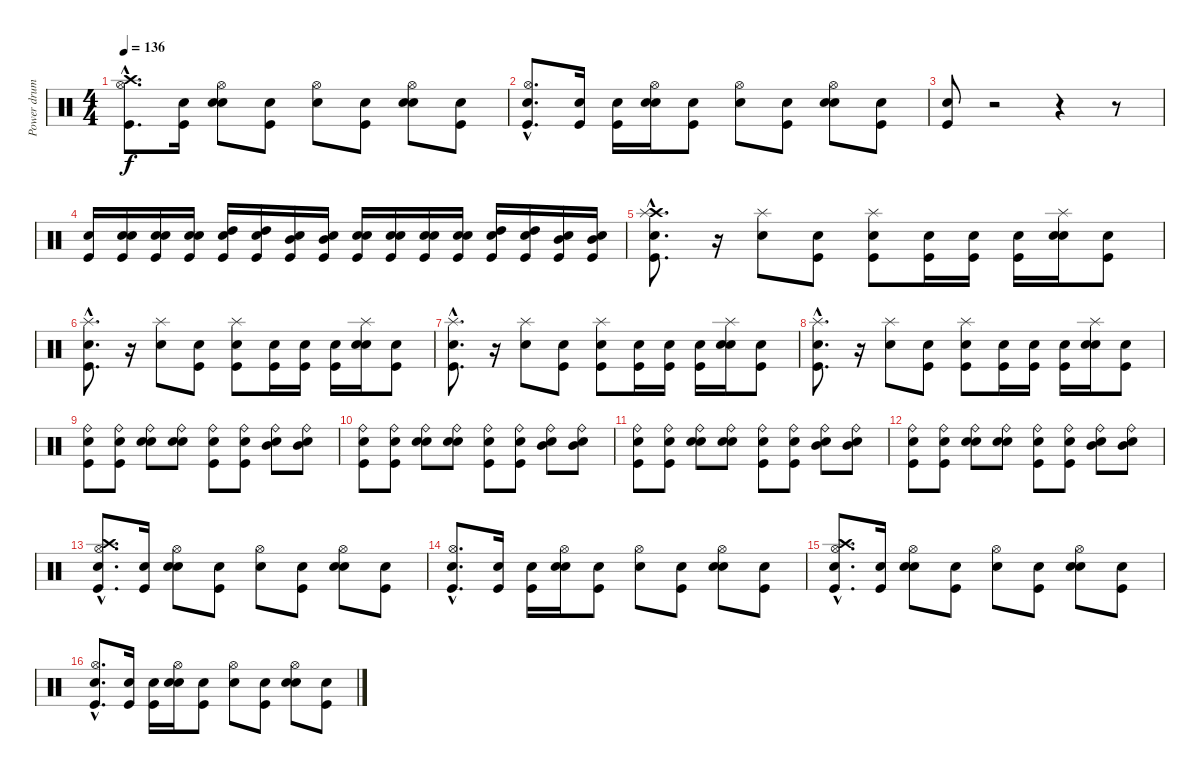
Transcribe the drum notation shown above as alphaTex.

\track ("Power drums" "Power drum") {instrument percussion}
\staff {score}
\articulation defaults
\ts (4 4)
\tempo 136
\clef neutral
\ks c
("Kick (hit)"{hac} "Hi-Hat (open)"{hac} "Crash high (hit)"{hac}).8{d dy f} ("Snare (hit)" "Kick (hit)").16 ("Snare (hit)" "Snare (hit) 2" "Hi-Hat (open)").8 ("Snare (hit)" "Kick (hit)").8 ("Snare (hit)" "Hi-Hat (open)").8 ("Snare (hit)" "Kick (hit)").8 ("Snare (hit)" "Snare (hit) 2" "Hi-Hat (open)").8 ("Snare (hit)" "Kick (hit)").8 |
("Snare (hit)"{hac} "Kick (hit)"{hac} "Hi-Hat (open)"{hac}).8{d} ("Snare (hit)" "Kick (hit)").16 ("Snare (hit)" "Kick (hit)").16 ("Snare (hit)" "Snare (hit) 2" "Hi-Hat (open)").16 ("Snare (hit)" "Kick (hit)").8 ("Snare (hit)" "Hi-Hat (open)").8 ("Snare (hit)" "Kick (hit)").8 ("Snare (hit)" "Snare (hit) 2" "Hi-Hat (open)").8 ("Snare (hit)" "Kick (hit)").8 |
("Snare (hit)" "Kick (hit)").8 r.2 r.4 r.8 |
("Kick (hit)" "Snare (hit) 2").16 ("Snare (hit)" "Kick (hit)" "Snare (hit) 2").16 ("Snare (hit)" "Kick (hit)" "Snare (hit) 2").16 ("Snare (hit)" "Kick (hit)" "Snare (hit) 2").16 ("Snare (hit)" "Kick (hit)" "High Tom (hit)").16 ("Snare (hit)" "Kick (hit)" "High Tom (hit)").16 ("Snare (hit)" "Kick (hit)" "Mid Tom (hit)").16 ("Snare (hit)" "Kick (hit)" "Mid Tom (hit)").16 ("Snare (hit)" "Kick (hit)" "Snare (hit) 2").16 ("Snare (hit)" "Kick (hit)" "Snare (hit) 2").16 ("Snare (hit)" "Kick (hit)" "Snare (hit) 2").16 ("Snare (hit)" "Kick (hit)" "Snare (hit) 2").16 ("Snare (hit)" "Kick (hit)" "High Tom (hit)").16 ("Snare (hit)" "Kick (hit)" "High Tom (hit)").16 ("Snare (hit)" "Kick (hit)" "Mid Tom (hit)").16 ("Snare (hit)" "Kick (hit)" "Mid Tom (hit)").16 |
("Snare (hit)"{hac} "Kick (hit)"{hac} "Crash high (hit)"{hac} "Splash (hit)"{hac}).8{d} r.16 ("Snare (hit) 2" "Splash (hit)").8 ("Snare (hit)" "Kick (hit)").8 ("Snare (hit)" "Kick (hit)" "Splash (hit)").8 ("Snare (hit)" "Kick (hit)").16 ("Snare (hit)" "Kick (hit)").16 ("Snare (hit)" "Kick (hit)").16 ("Snare (hit)" "Snare (hit) 2" "Splash (hit)").16 ("Snare (hit)" "Kick (hit)").8 |
("Snare (hit)"{hac} "Kick (hit)"{hac} "Splash (hit)"{hac}).8{d} r.16 ("Snare (hit) 2" "Splash (hit)").8 ("Snare (hit)" "Kick (hit)").8 ("Snare (hit)" "Kick (hit)" "Splash (hit)").8 ("Snare (hit)" "Kick (hit)").16 ("Snare (hit)" "Kick (hit)").16 ("Snare (hit)" "Kick (hit)").16 ("Snare (hit)" "Snare (hit) 2" "Splash (hit)").16 ("Snare (hit)" "Kick (hit)").8 |
("Snare (hit)"{hac} "Kick (hit)"{hac} "Splash (hit)"{hac}).8{d} r.16 ("Snare (hit) 2" "Splash (hit)").8 ("Snare (hit)" "Kick (hit)").8 ("Snare (hit)" "Kick (hit)" "Splash (hit)").8 ("Snare (hit)" "Kick (hit)").16 ("Snare (hit)" "Kick (hit)").16 ("Snare (hit)" "Kick (hit)").16 ("Snare (hit)" "Snare (hit) 2" "Splash (hit)").16 ("Snare (hit)" "Kick (hit)").8 |
("Snare (hit)"{hac} "Kick (hit)"{hac} "Splash (hit)"{hac}).8{d} r.16 ("Snare (hit) 2" "Splash (hit)").8 ("Snare (hit)" "Kick (hit)").8 ("Snare (hit)" "Kick (hit)" "Splash (hit)").8 ("Snare (hit)" "Kick (hit)").16 ("Snare (hit)" "Kick (hit)").16 ("Snare (hit)" "Kick (hit)").16 ("Snare (hit)" "Snare (hit) 2" "Splash (hit)").16 ("Snare (hit)" "Kick (hit)").8 |
("Snare (hit)" "Kick (hit)" "Ride (bell)").8 ("Snare (hit)" "Kick (hit)" "Ride (bell)").8 ("Snare (hit)" "Snare (hit) 2" "Ride (bell)").8 ("Snare (hit)" "Snare (hit) 2" "Ride (bell)").8 ("Snare (hit)" "Kick (hit)" "Ride (bell)").8 ("Snare (hit)" "Kick (hit)" "Ride (bell)").8 ("Snare (hit)" "Mid Tom (hit)" "Ride (bell)").8 ("Snare (hit)" "Mid Tom (hit)" "Ride (bell)").8 |
("Snare (hit)" "Kick (hit)" "Ride (bell)").8 ("Snare (hit)" "Kick (hit)" "Ride (bell)").8 ("Snare (hit)" "Snare (hit) 2" "Ride (bell)").8 ("Snare (hit)" "Snare (hit) 2" "Ride (bell)").8 ("Snare (hit)" "Kick (hit)" "Ride (bell)").8 ("Snare (hit)" "Kick (hit)" "Ride (bell)").8 ("Snare (hit)" "Mid Tom (hit)" "Ride (bell)").8 ("Snare (hit)" "Mid Tom (hit)" "Ride (bell)").8 |
("Snare (hit)" "Kick (hit)" "Ride (bell)").8 ("Snare (hit)" "Kick (hit)" "Ride (bell)").8 ("Snare (hit)" "Snare (hit) 2" "Ride (bell)").8 ("Snare (hit)" "Snare (hit) 2" "Ride (bell)").8 ("Snare (hit)" "Kick (hit)" "Ride (bell)").8 ("Snare (hit)" "Kick (hit)" "Ride (bell)").8 ("Snare (hit)" "Mid Tom (hit)" "Ride (bell)").8 ("Snare (hit)" "Mid Tom (hit)" "Ride (bell)").8 |
("Snare (hit)" "Kick (hit)" "Ride (bell)").8 ("Snare (hit)" "Kick (hit)" "Ride (bell)").8 ("Snare (hit)" "Snare (hit) 2" "Ride (bell)").8 ("Snare (hit)" "Snare (hit) 2" "Ride (bell)").8 ("Snare (hit)" "Kick (hit)" "Ride (bell)").8 ("Snare (hit)" "Kick (hit)" "Ride (bell)").8 ("Snare (hit)" "Mid Tom (hit)" "Ride (bell)").8 ("Snare (hit)" "Mid Tom (hit)" "Ride (bell)").8 |
("Snare (hit)"{hac} "Kick (hit)"{hac} "Hi-Hat (open)"{hac} "Crash high (hit)"{hac}).8{d} ("Snare (hit)" "Kick (hit)").16 ("Snare (hit)" "Snare (hit) 2" "Hi-Hat (open)").8 ("Snare (hit)" "Kick (hit)").8 ("Snare (hit)" "Hi-Hat (open)").8 ("Snare (hit)" "Kick (hit)").8 ("Snare (hit)" "Snare (hit) 2" "Hi-Hat (open)").8 ("Snare (hit)" "Kick (hit)").8 |
("Snare (hit)"{hac} "Kick (hit)"{hac} "Hi-Hat (open)"{hac}).8{d} ("Snare (hit)" "Kick (hit)").16 ("Snare (hit)" "Kick (hit)").16 ("Snare (hit)" "Snare (hit) 2" "Hi-Hat (open)").16 ("Snare (hit)" "Kick (hit)").8 ("Snare (hit)" "Hi-Hat (open)").8 ("Snare (hit)" "Kick (hit)").8 ("Snare (hit)" "Snare (hit) 2" "Hi-Hat (open)").8 ("Snare (hit)" "Kick (hit)").8 |
("Snare (hit)"{hac} "Kick (hit)"{hac} "Hi-Hat (open)"{hac} "Crash high (hit)"{hac}).8{d} ("Snare (hit)" "Kick (hit)").16 ("Snare (hit)" "Snare (hit) 2" "Hi-Hat (open)").8 ("Snare (hit)" "Kick (hit)").8 ("Snare (hit)" "Hi-Hat (open)").8 ("Snare (hit)" "Kick (hit)").8 ("Snare (hit)" "Snare (hit) 2" "Hi-Hat (open)").8 ("Snare (hit)" "Kick (hit)").8 |
("Snare (hit)"{hac} "Kick (hit)"{hac} "Hi-Hat (open)"{hac}).8{d} ("Snare (hit)" "Kick (hit)").16 ("Snare (hit)" "Kick (hit)").16 ("Snare (hit)" "Snare (hit) 2" "Hi-Hat (open)").16 ("Snare (hit)" "Kick (hit)").8 ("Snare (hit)" "Hi-Hat (open)").8 ("Snare (hit)" "Kick (hit)").8 ("Snare (hit)" "Snare (hit) 2" "Hi-Hat (open)").8 ("Snare (hit)" "Kick (hit)").8
